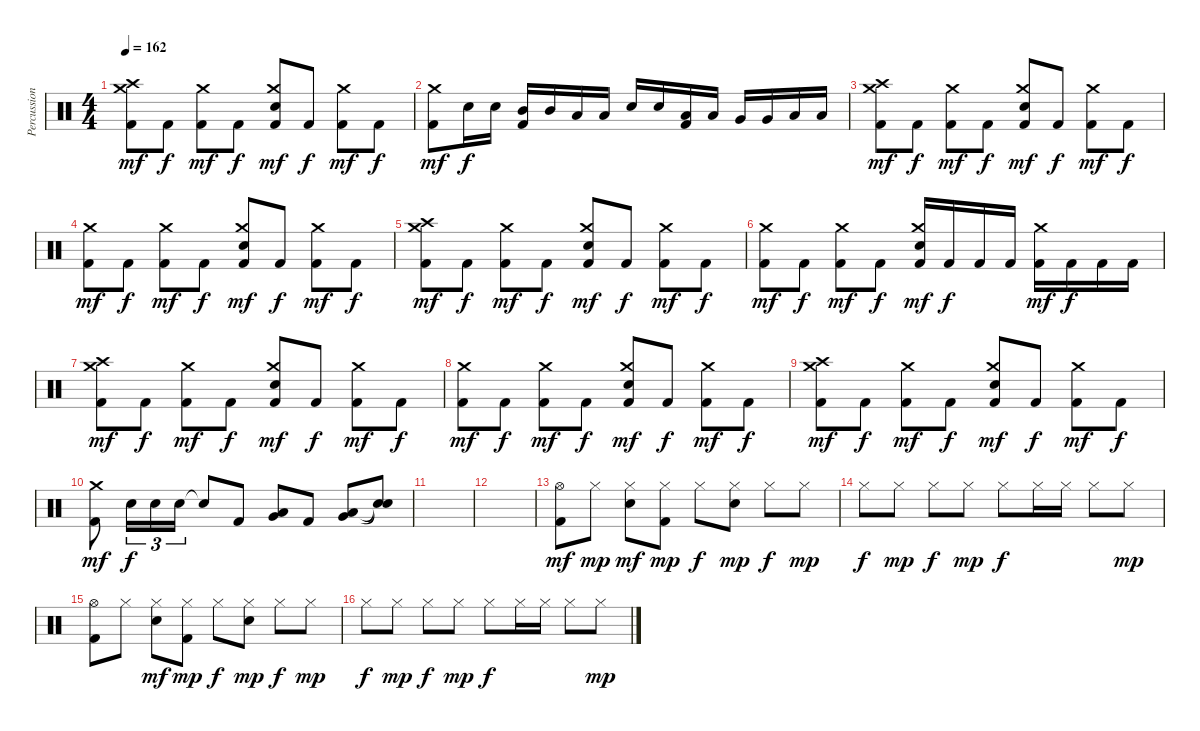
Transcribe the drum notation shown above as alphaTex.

\track ("Percussion" "Percussion") {instrument percussion}
\staff {score}
\articulation defaults
\ts (4 4)
\tempo 162
\clef neutral
\ks c
("Kick (hit) 2" "Crash high (hit)" "Crash medium (hit)").8{dy mf} "Kick (hit) 2".8{dy f} ("Kick (hit) 2" "Crash medium (hit)").8{dy mf} "Kick (hit) 2".8{dy f} ("Kick (hit) 2" "Snare (hit) 2" "Crash medium (hit)").8{dy mf} "Kick (hit) 2".8{dy f} ("Kick (hit) 2" "Crash medium (hit)").8{dy mf} "Kick (hit) 2".8{dy f} |
("Kick (hit) 2" "Crash medium (hit)").8{dy mf} "Snare (hit) 2".16{dy f} "Snare (hit) 2".16 ("Kick (hit) 2" "Mid Tom (hit)").16 "Mid Tom (hit)".16 "Low Tom (hit)".16 "Low Tom (hit)".16 "Snare (hit) 2".16 "Snare (hit) 2".16 ("Kick (hit) 2" "Low Tom (hit)").16 "Low Tom (hit)".16 "Very Low Tom (hit)".16 "Very Low Tom (hit)".16 "Low Floor Tom (hit)".16 "Low Floor Tom (hit)".16 |
("Kick (hit) 2" "Crash high (hit)" "Crash medium (hit)").8{dy mf} "Kick (hit) 2".8{dy f} ("Kick (hit) 2" "Crash medium (hit)").8{dy mf} "Kick (hit) 2".8{dy f} ("Kick (hit) 2" "Snare (hit) 2" "Crash medium (hit)").8{dy mf} "Kick (hit) 2".8{dy f} ("Kick (hit) 2" "Crash medium (hit)").8{dy mf} "Kick (hit) 2".8{dy f} |
("Kick (hit) 2" "Crash medium (hit)").8{dy mf} "Kick (hit) 2".8{dy f} ("Kick (hit) 2" "Crash medium (hit)").8{dy mf} "Kick (hit) 2".8{dy f} ("Kick (hit) 2" "Snare (hit) 2" "Crash medium (hit)").8{dy mf} "Kick (hit) 2".8{dy f} ("Kick (hit) 2" "Crash medium (hit)").8{dy mf} "Kick (hit) 2".8{dy f} |
("Kick (hit) 2" "Crash high (hit)" "Crash medium (hit)").8{dy mf} "Kick (hit) 2".8{dy f} ("Kick (hit) 2" "Crash medium (hit)").8{dy mf} "Kick (hit) 2".8{dy f} ("Kick (hit) 2" "Snare (hit) 2" "Crash medium (hit)").8{dy mf} "Kick (hit) 2".8{dy f} ("Kick (hit) 2" "Crash medium (hit)").8{dy mf} "Kick (hit) 2".8{dy f} |
("Kick (hit) 2" "Crash medium (hit)").8{dy mf} "Kick (hit) 2".8{dy f} ("Kick (hit) 2" "Crash medium (hit)").8{dy mf} "Kick (hit) 2".8{dy f} ("Kick (hit) 2" "Snare (hit) 2" "Crash medium (hit)").16{dy mf} "Kick (hit) 2".16{dy f} "Kick (hit) 2".16 "Kick (hit) 2".16 ("Kick (hit) 2" "Crash medium (hit)").16{dy mf} "Kick (hit) 2".16{dy f} "Kick (hit) 2".16 "Kick (hit) 2".16 |
("Kick (hit) 2" "Crash high (hit)" "Crash medium (hit)").8{dy mf} "Kick (hit) 2".8{dy f} ("Kick (hit) 2" "Crash medium (hit)").8{dy mf} "Kick (hit) 2".8{dy f} ("Kick (hit) 2" "Snare (hit) 2" "Crash medium (hit)").8{dy mf} "Kick (hit) 2".8{dy f} ("Kick (hit) 2" "Crash medium (hit)").8{dy mf} "Kick (hit) 2".8{dy f} |
("Kick (hit) 2" "Crash medium (hit)").8{dy mf} "Kick (hit) 2".8{dy f} ("Kick (hit) 2" "Crash medium (hit)").8{dy mf} "Kick (hit) 2".8{dy f} ("Kick (hit) 2" "Snare (hit) 2" "Crash medium (hit)").8{dy mf} "Kick (hit) 2".8{dy f} ("Kick (hit) 2" "Crash medium (hit)").8{dy mf} "Kick (hit) 2".8{dy f} |
("Kick (hit) 2" "Crash high (hit)" "Crash medium (hit)").8{dy mf} "Kick (hit) 2".8{dy f} ("Kick (hit) 2" "Crash medium (hit)").8{dy mf} "Kick (hit) 2".8{dy f} ("Kick (hit) 2" "Snare (hit) 2" "Crash medium (hit)").8{dy mf} "Kick (hit) 2".8{dy f} ("Kick (hit) 2" "Crash medium (hit)").8{dy mf} "Kick (hit) 2".8{dy f} |
("Kick (hit) 2" "Crash medium (hit)").8{dy mf} "Snare (hit) 2".16{tu (3 2) dy f} "Snare (hit) 2".16{tu (3 2)} "Snare (hit) 2".16{tu (3 2)} "Snare (hit)"{t}.8 "Kick (hit) 2".8 ("Low Tom (hit)" "Very Low Tom (hit)").8 "Kick (hit) 2".8 ("Very Low Tom (hit)" "Low Floor Tom (hit)").8 ("Snare (hit)"{t} "Snare (hit)"{t}).8 |
|
|
("Kick (hit) 2" "Hi-Hat (open)").8{dy mf} "Hi-Hat (closed)".8{dy mp} ("Snare (hit) 2" "Hi-Hat (closed)").8{dy mf} ("Kick (hit) 2" "Hi-Hat (closed)").8{dy mp} "Hi-Hat (closed)".8{dy f} ("Snare (hit) 2" "Hi-Hat (closed)").8{dy mp} "Hi-Hat (closed)".8{dy f} "Hi-Hat (closed)".8{dy mp} |
"Hi-Hat (closed)".8{dy f} "Hi-Hat (closed)".8{dy mp} "Hi-Hat (closed)".8{dy f} "Hi-Hat (closed)".8{dy mp} "Hi-Hat (closed)".8{dy f} "Hi-Hat (closed)".16 "Hi-Hat (closed)".16 "Hi-Hat (closed)".8 "Hi-Hat (closed)".8{dy mp} |
("Kick (hit) 2" "Hi-Hat (open)").8 "Hi-Hat (closed)".8 ("Snare (hit) 2" "Hi-Hat (closed)").8{dy mf} ("Kick (hit) 2" "Hi-Hat (closed)").8{dy mp} "Hi-Hat (closed)".8{dy f} ("Snare (hit) 2" "Hi-Hat (closed)").8{dy mp} "Hi-Hat (closed)".8{dy f} "Hi-Hat (closed)".8{dy mp} |
"Hi-Hat (closed)".8{dy f} "Hi-Hat (closed)".8{dy mp} "Hi-Hat (closed)".8{dy f} "Hi-Hat (closed)".8{dy mp} "Hi-Hat (closed)".8{dy f} "Hi-Hat (closed)".16 "Hi-Hat (closed)".16 "Hi-Hat (closed)".8 "Hi-Hat (closed)".8{dy mp}
